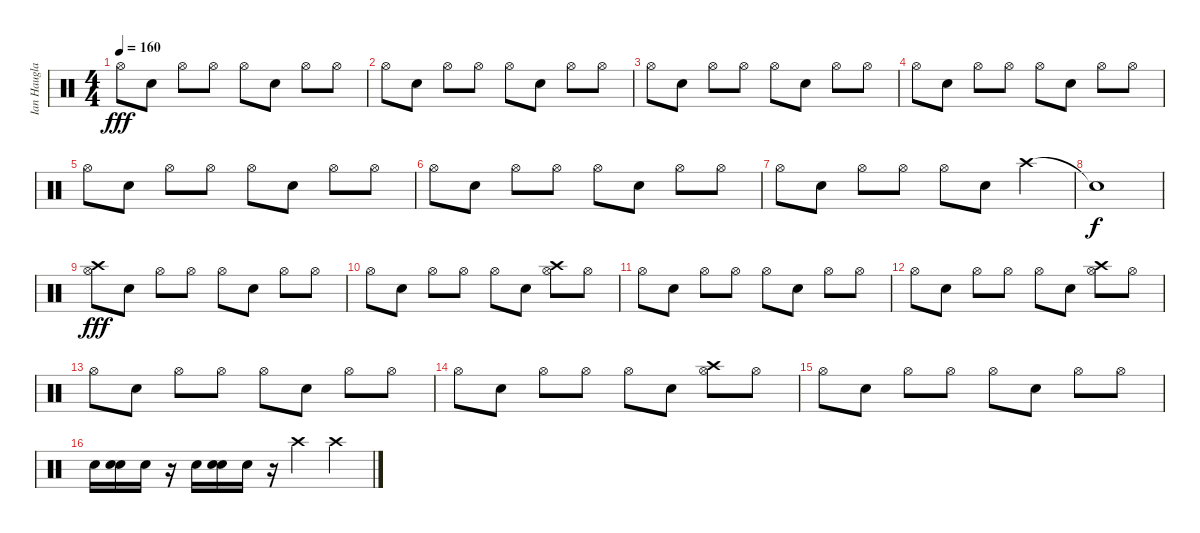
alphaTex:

\track ("Ian Haugland" "Ian Haugla") {instrument percussion}
\staff {score}
\articulation defaults
\ts (4 4)
\tempo 160
\clef neutral
\ks c "Hi-Hat (open)".8{dy fff} "Electric Snare (hit)".8 "Hi-Hat (open)".8 "Hi-Hat (open)".8 "Hi-Hat (open)".8 "Snare (hit) 2".8 "Hi-Hat (open)".8 "Hi-Hat (open)".8
|
"Hi-Hat (open)".8 "Electric Snare (hit)".8 "Hi-Hat (open)".8 "Hi-Hat (open)".8 "Hi-Hat (open)".8 "Electric Snare (hit)".8 "Hi-Hat (open)".8 "Hi-Hat (open)".8 |
"Hi-Hat (open)".8 "Electric Snare (hit)".8 "Hi-Hat (open)".8 "Hi-Hat (open)".8 "Hi-Hat (open)".8 "Snare (hit) 2".8 "Hi-Hat (open)".8 "Hi-Hat (open)".8 |
"Hi-Hat (open)".8 "Electric Snare (hit)".8 "Hi-Hat (open)".8 "Hi-Hat (open)".8 "Hi-Hat (open)".8 "Electric Snare (hit)".8 "Hi-Hat (open)".8 "Hi-Hat (open)".8 |
"Hi-Hat (open)".8 "Electric Snare (hit)".8 "Hi-Hat (open)".8 "Hi-Hat (open)".8 "Hi-Hat (open)".8 "Snare (hit) 2".8 "Hi-Hat (open)".8 "Hi-Hat (open)".8 |
"Hi-Hat (open)".8 "Electric Snare (hit)".8 "Hi-Hat (open)".8 "Hi-Hat (open)".8 "Hi-Hat (open)".8 "Electric Snare (hit)".8 "Hi-Hat (open)".8 "Hi-Hat (open)".8 |
"Hi-Hat (open)".8 "Electric Snare (hit)".8 "Hi-Hat (open)".8 "Hi-Hat (open)".8 "Hi-Hat (open)".8 "Electric Snare (hit)".8 "Crash high (hit)".4 |
"Snare (hit)"{t}.1{dy f} |
("Hi-Hat (open)" "Crash high (hit)").8{dy fff} "Electric Snare (hit)".8 "Hi-Hat (open)".8 "Hi-Hat (open)".8 "Hi-Hat (open)".8 "Snare (hit) 2".8 "Hi-Hat (open)".8 "Hi-Hat (open)".8 |
"Hi-Hat (open)".8 "Electric Snare (hit)".8 "Hi-Hat (open)".8 "Hi-Hat (open)".8 "Hi-Hat (open)".8 "Electric Snare (hit)".8 ("Hi-Hat (open)" "Crash high (hit)").8 "Hi-Hat (open)".8 |
"Hi-Hat (open)".8 "Electric Snare (hit)".8 "Hi-Hat (open)".8 "Hi-Hat (open)".8 "Hi-Hat (open)".8 "Snare (hit) 2".8 "Hi-Hat (open)".8 "Hi-Hat (open)".8 |
"Hi-Hat (open)".8 "Electric Snare (hit)".8 "Hi-Hat (open)".8 "Hi-Hat (open)".8 "Hi-Hat (open)".8 "Electric Snare (hit)".8 ("Hi-Hat (open)" "Crash high (hit)").8 "Hi-Hat (open)".8 |
"Hi-Hat (open)".8 "Electric Snare (hit)".8 "Hi-Hat (open)".8 "Hi-Hat (open)".8 "Hi-Hat (open)".8 "Snare (hit) 2".8 "Hi-Hat (open)".8 "Hi-Hat (open)".8 |
"Hi-Hat (open)".8 "Electric Snare (hit)".8 "Hi-Hat (open)".8 "Hi-Hat (open)".8 "Hi-Hat (open)".8 "Electric Snare (hit)".8 ("Hi-Hat (open)" "Crash high (hit)").8 "Hi-Hat (open)".8 |
"Hi-Hat (open)".8 "Electric Snare (hit)".8 "Hi-Hat (open)".8 "Hi-Hat (open)".8 "Hi-Hat (open)".8 "Snare (hit) 2".8 "Hi-Hat (open)".8 "Hi-Hat (open)".8 |
"Snare (hit) 2".16 ("Electric Snare (hit)" "Snare (hit) 2").16 "Snare (hit) 2".16 r.16 "Snare (hit) 2".16 ("Electric Snare (hit)" "Snare (hit) 2").16 "Snare (hit) 2".16 r.16 "Crash high (hit)".4 "Crash high (hit)".4
